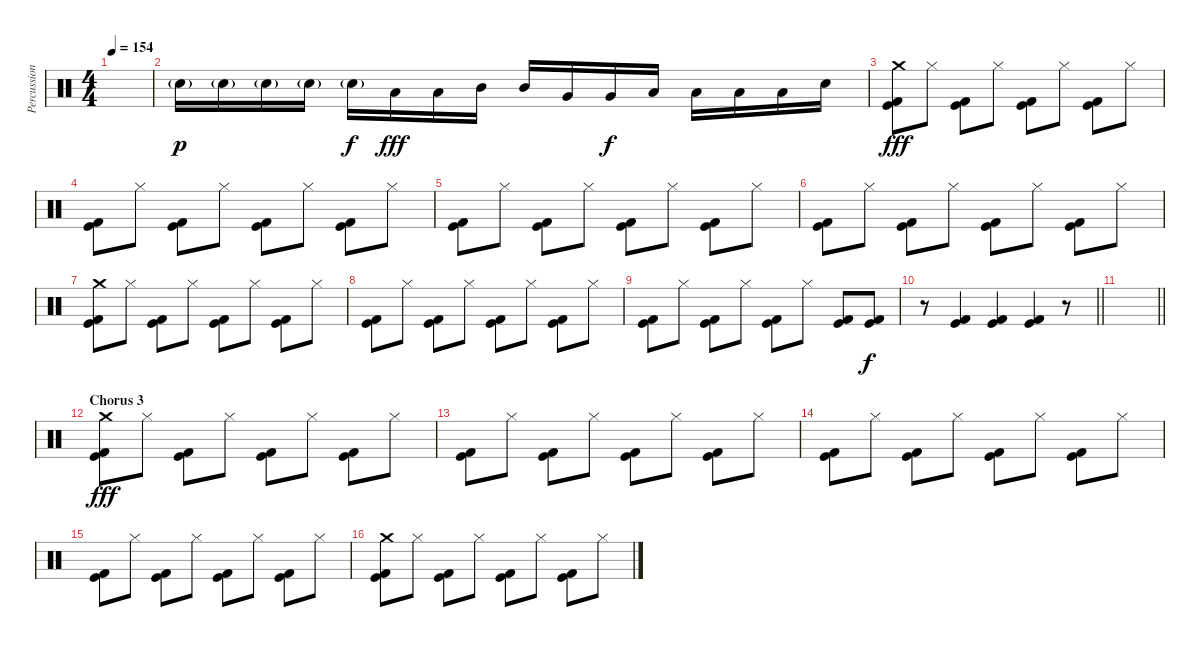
\track ("Percussion" "Percussion") {instrument percussion}
\staff {score}
\articulation defaults
\ts (4 4)
\tempo 154
\clef neutral
\ks c
|
"Snare (hit) 2"{g}.16{dy p} "Snare (hit) 2"{g}.16 "Snare (hit) 2"{g}.16 "Snare (hit) 2"{g}.16 "Snare (hit) 2"{g}.16{dy f} "Low Tom (hit)".16{dy fff} "Low Tom (hit)".16 "Mid Tom (hit)".16 "Mid Tom (hit)".16 "Very Low Tom (hit)".16 "Very Low Tom (hit)".16{dy f} "Low Floor Tom (hit)".16 "Low Floor Tom (hit)".16 "Low Tom (hit)".16 "Low Tom (hit)".16 "Snare (hit) 2".16 |
("Crash medium (hit)" "Kick (hit)" "Kick (hit) 2").8{dy fff} "Hi-Hat (closed)".8 ("Kick (hit)" "Kick (hit) 2").8 "Hi-Hat (closed)".8 ("Kick (hit)" "Kick (hit) 2").8 "Hi-Hat (closed)".8 ("Kick (hit)" "Kick (hit) 2").8 "Hi-Hat (closed)".8 |
("Kick (hit)" "Kick (hit) 2").8 "Hi-Hat (closed)".8 ("Kick (hit)" "Kick (hit) 2").8 "Hi-Hat (closed)".8 ("Kick (hit)" "Kick (hit) 2").8 "Hi-Hat (closed)".8 ("Kick (hit)" "Kick (hit) 2").8 "Hi-Hat (closed)".8 |
("Kick (hit)" "Kick (hit) 2").8 "Hi-Hat (closed)".8 ("Kick (hit)" "Kick (hit) 2").8 "Hi-Hat (closed)".8 ("Kick (hit)" "Kick (hit) 2").8 "Hi-Hat (closed)".8 ("Kick (hit)" "Kick (hit) 2").8 "Hi-Hat (closed)".8 |
("Kick (hit)" "Kick (hit) 2").8 "Hi-Hat (closed)".8 ("Kick (hit)" "Kick (hit) 2").8 "Hi-Hat (closed)".8 ("Kick (hit)" "Kick (hit) 2").8 "Hi-Hat (closed)".8 ("Kick (hit)" "Kick (hit) 2").8 "Hi-Hat (closed)".8 |
("Crash medium (hit)" "Kick (hit)" "Kick (hit) 2").8 "Hi-Hat (closed)".8 ("Kick (hit)" "Kick (hit) 2").8 "Hi-Hat (closed)".8 ("Kick (hit)" "Kick (hit) 2").8 "Hi-Hat (closed)".8 ("Kick (hit)" "Kick (hit) 2").8 "Hi-Hat (closed)".8 |
("Kick (hit)" "Kick (hit) 2").8 "Hi-Hat (closed)".8 ("Kick (hit)" "Kick (hit) 2").8 "Hi-Hat (closed)".8 ("Kick (hit)" "Kick (hit) 2").8 "Hi-Hat (closed)".8 ("Kick (hit)" "Kick (hit) 2").8 "Hi-Hat (closed)".8 |
("Kick (hit)" "Kick (hit) 2").8 "Hi-Hat (closed)".8 ("Kick (hit)" "Kick (hit) 2").8 "Hi-Hat (closed)".8 ("Kick (hit)" "Kick (hit) 2").8 "Hi-Hat (closed)".8 ("Kick (hit)" "Kick (hit) 2").8 ("Kick (hit)" "Kick (hit) 2").8{dy f} |
\barLineRight lightlight
r.8 ("Kick (hit)" "Kick (hit) 2").4 ("Kick (hit)" "Kick (hit) 2").4 ("Kick (hit)" "Kick (hit) 2").4 r.8 |
\barLineRight lightlight
|
\section ("" "Chorus 3")
("Crash medium (hit)" "Kick (hit)" "Kick (hit) 2").8{dy fff} "Hi-Hat (closed)".8 ("Kick (hit)" "Kick (hit) 2").8 "Hi-Hat (closed)".8 ("Kick (hit)" "Kick (hit) 2").8 "Hi-Hat (closed)".8 ("Kick (hit)" "Kick (hit) 2").8 "Hi-Hat (closed)".8 |
("Kick (hit)" "Kick (hit) 2").8 "Hi-Hat (closed)".8 ("Kick (hit)" "Kick (hit) 2").8 "Hi-Hat (closed)".8 ("Kick (hit)" "Kick (hit) 2").8 "Hi-Hat (closed)".8 ("Kick (hit)" "Kick (hit) 2").8 "Hi-Hat (closed)".8 |
("Kick (hit)" "Kick (hit) 2").8 "Hi-Hat (closed)".8 ("Kick (hit)" "Kick (hit) 2").8 "Hi-Hat (closed)".8 ("Kick (hit)" "Kick (hit) 2").8 "Hi-Hat (closed)".8 ("Kick (hit)" "Kick (hit) 2").8 "Hi-Hat (closed)".8 |
("Kick (hit)" "Kick (hit) 2").8 "Hi-Hat (closed)".8 ("Kick (hit)" "Kick (hit) 2").8 "Hi-Hat (closed)".8 ("Kick (hit)" "Kick (hit) 2").8 "Hi-Hat (closed)".8 ("Kick (hit)" "Kick (hit) 2").8 "Hi-Hat (closed)".8 |
("Crash medium (hit)" "Kick (hit)" "Kick (hit) 2").8 "Hi-Hat (closed)".8 ("Kick (hit)" "Kick (hit) 2").8 "Hi-Hat (closed)".8 ("Kick (hit)" "Kick (hit) 2").8 "Hi-Hat (closed)".8 ("Kick (hit)" "Kick (hit) 2").8 "Hi-Hat (closed)".8
